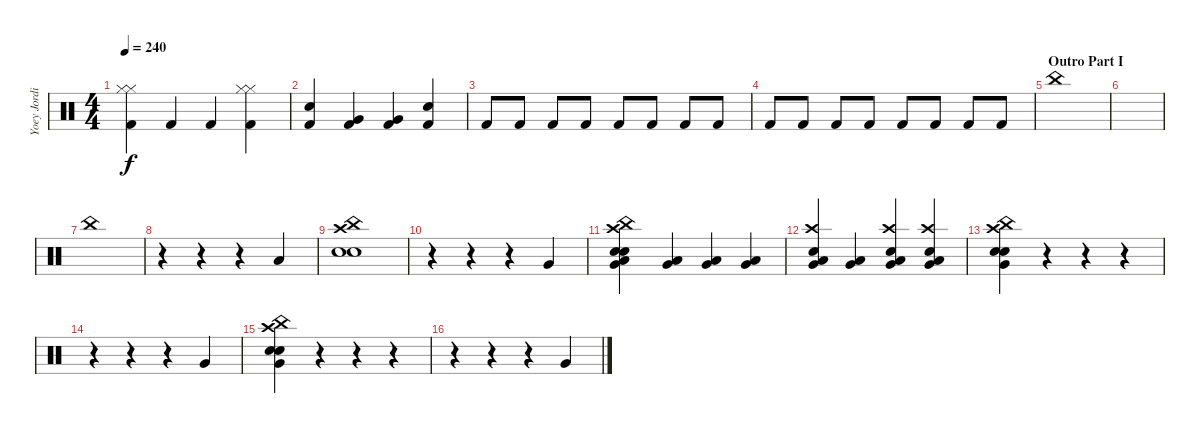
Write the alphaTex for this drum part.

\track ("Yoey Jordison" "Yoey Jordi") {instrument percussion}
\staff {score}
\articulation defaults
\ts (4 4)
\tempo 240
\clef neutral
\ks c
("Kick (hit) 2" "Hi-Hat (closed)" "Hi-Hat (closed)").4{dy f} "Kick (hit) 2".4 "Kick (hit) 2".4 ("Kick (hit) 2" "Hi-Hat (closed)" "Hi-Hat (closed)").4 |
("Kick (hit) 2" "Snare (hit) 2").4 ("Kick (hit) 2" "Very Low Tom (hit)").4 ("Kick (hit) 2" "Very Low Tom (hit)").4 ("Kick (hit) 2" "Snare (hit) 2").4 |
"Kick (hit) 2".8 "Kick (hit) 2".8 "Kick (hit) 2".8 "Kick (hit) 2".8 "Kick (hit) 2".8 "Kick (hit) 2".8 "Kick (hit) 2".8 "Kick (hit) 2".8 |
"Kick (hit) 2".8 "Kick (hit) 2".8 "Kick (hit) 2".8 "Kick (hit) 2".8 "Kick (hit) 2".8 "Kick (hit) 2".8 "Kick (hit) 2".8 "Kick (hit) 2".8 |
\section ("" "Outro Part I")
"China (hit)".1 |
|
"China (hit)".1 |
r.4 r.4 r.4 "Low Floor Tom (hit)".4 |
("Crash high (hit)" "China (hit)" "Electric Snare (hit)" "Snare (hit) 2").1 |
r.4 r.4 r.4 "Very Low Tom (hit)".4 |
("Crash high (hit)" "China (hit)" "Electric Snare (hit)" "Very Low Tom (hit)" "Snare (hit) 2" "Low Floor Tom (hit)").4 ("Very Low Tom (hit)" "Low Floor Tom (hit)").4 ("Very Low Tom (hit)" "Low Floor Tom (hit)").4 ("Very Low Tom (hit)" "Low Floor Tom (hit)").4 |
("Crash high (hit)" "Electric Snare (hit)" "Very Low Tom (hit)" "Low Floor Tom (hit)").4 ("Very Low Tom (hit)" "Low Floor Tom (hit)").4 ("Crash high (hit)" "Electric Snare (hit)" "Very Low Tom (hit)" "Low Floor Tom (hit)").4 ("Crash high (hit)" "Electric Snare (hit)" "Very Low Tom (hit)" "Low Floor Tom (hit)").4 |
("China (hit)" "Crash high (hit)" "Electric Snare (hit)" "Snare (hit) 2" "Very Low Tom (hit)").4 r.4 r.4 r.4 |
r.4 r.4 r.4 "Very Low Tom (hit)".4 |
("China (hit)" "Crash high (hit)" "Electric Snare (hit)" "Snare (hit) 2" "Very Low Tom (hit)").4 r.4 r.4 r.4 |
r.4 r.4 r.4 "Very Low Tom (hit)".4
